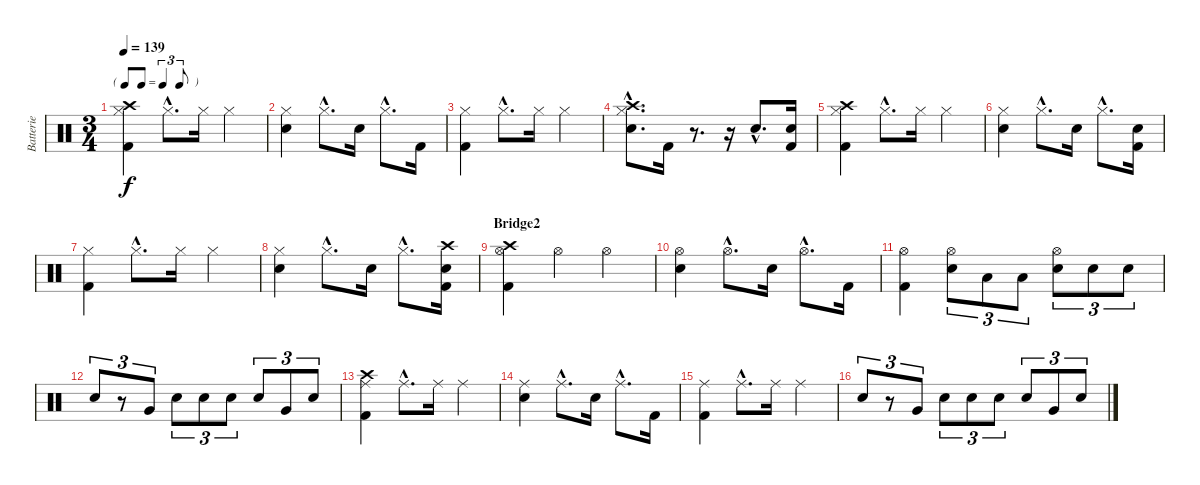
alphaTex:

\track ("Batterie" "Batterie") {instrument percussion}
\staff {score}
\articulation defaults
\ts (3 4)
\tf triplet8th
\tempo 139
\clef neutral
\ks c
("Crash high (hit)" "Hi-Hat (closed)" "Kick (hit) 2").4{dy f} "Hi-Hat (closed)"{hac}.8{d} "Hi-Hat (closed)".16 "Hi-Hat (closed)".4 |
("Hi-Hat (closed)" "Snare (hit) 2").4 "Hi-Hat (closed)"{hac}.8{d} "Snare (hit) 2".16 "Hi-Hat (closed)"{hac}.8{d} "Kick (hit) 2".16 |
("Hi-Hat (closed)" "Kick (hit) 2").4 "Hi-Hat (closed)"{hac}.8{d} "Hi-Hat (closed)".16 "Hi-Hat (closed)".4 |
("Crash high (hit)"{hac} "Hi-Hat (closed)"{hac} "Snare (hit) 2"{hac}).8{d} "Kick (hit) 2".16 r.8{d} r.16 "Electric Snare (hit)"{hac}.8{d} ("Snare (hit) 2" "Kick (hit) 2").16 |
("Crash high (hit)" "Hi-Hat (closed)" "Kick (hit) 2").4 "Hi-Hat (closed)"{hac}.8{d} "Hi-Hat (closed)".16 "Hi-Hat (closed)".4 |
("Hi-Hat (closed)" "Snare (hit) 2").4 "Hi-Hat (closed)"{hac}.8{d} "Snare (hit) 2".16 "Hi-Hat (closed)"{hac}.8{d} ("Snare (hit) 2" "Kick (hit) 2").16 |
("Hi-Hat (closed)" "Kick (hit) 2").4 "Hi-Hat (closed)"{hac}.8{d} "Hi-Hat (closed)".16 "Hi-Hat (closed)".4 |
("Hi-Hat (closed)" "Snare (hit) 2").4 "Hi-Hat (closed)"{hac}.8{d} "Snare (hit) 2".16 "Hi-Hat (closed)"{hac}.8{d} ("Crash high (hit)" "Snare (hit) 2" "Kick (hit) 2").16 |
\section ("" "Bridge2")
("Crash high (hit)" "Hi-Hat (open)" "Kick (hit) 2").4 "Hi-Hat (open)".4 "Hi-Hat (open)".4 |
("Hi-Hat (open)" "Snare (hit) 2").4 "Hi-Hat (open)"{hac}.8{d} "Snare (hit) 2".16 "Hi-Hat (open)"{hac}.8{d} "Kick (hit) 2".16 |
("Hi-Hat (open)" "Kick (hit) 2").4 ("Hi-Hat (open)" "Snare (hit) 2").8{tu (3 2)} "Low Floor Tom (hit)".8{tu (3 2)} "Low Tom (hit)".8{tu (3 2)} ("Hi-Hat (open)" "Snare (hit) 2").8{tu (3 2)} "Snare (hit) 2".8{tu (3 2)} "Snare (hit) 2".8{tu (3 2)} |
"Snare (hit) 2".8{tu (3 2)} r.8{tu (3 2)} "Very Low Tom (hit)".8{tu (3 2)} "Snare (hit) 2".8{tu (3 2)} "Electric Snare (hit)".8{tu (3 2)} "Snare (hit) 2".8{tu (3 2)} "Snare (hit) 2".8{tu (3 2)} "Very Low Tom (hit)".8{tu (3 2)} "Snare (hit) 2".8{tu (3 2)} |
("Crash high (hit)" "Ride (middle)" "Kick (hit) 2").4 "Ride (middle)"{hac}.8{d} "Ride (middle)".16 "Ride (middle)".4 |
("Ride (middle)" "Snare (hit) 2").4 "Ride (middle)"{hac}.8{d} "Snare (hit) 2".16 "Ride (middle)"{hac}.8{d} "Kick (hit) 2".16 |
("Ride (middle)" "Kick (hit) 2").4 "Ride (middle)"{hac}.8{d} "Ride (middle)".16 "Ride (middle)".4 |
"Snare (hit) 2".8{tu (3 2)} r.8{tu (3 2)} "Very Low Tom (hit)".8{tu (3 2)} "Snare (hit) 2".8{tu (3 2)} "Electric Snare (hit)".8{tu (3 2)} "Snare (hit) 2".8{tu (3 2)} "Snare (hit) 2".8{tu (3 2)} "Very Low Tom (hit)".8{tu (3 2)} "Snare (hit) 2".8{tu (3 2)}
